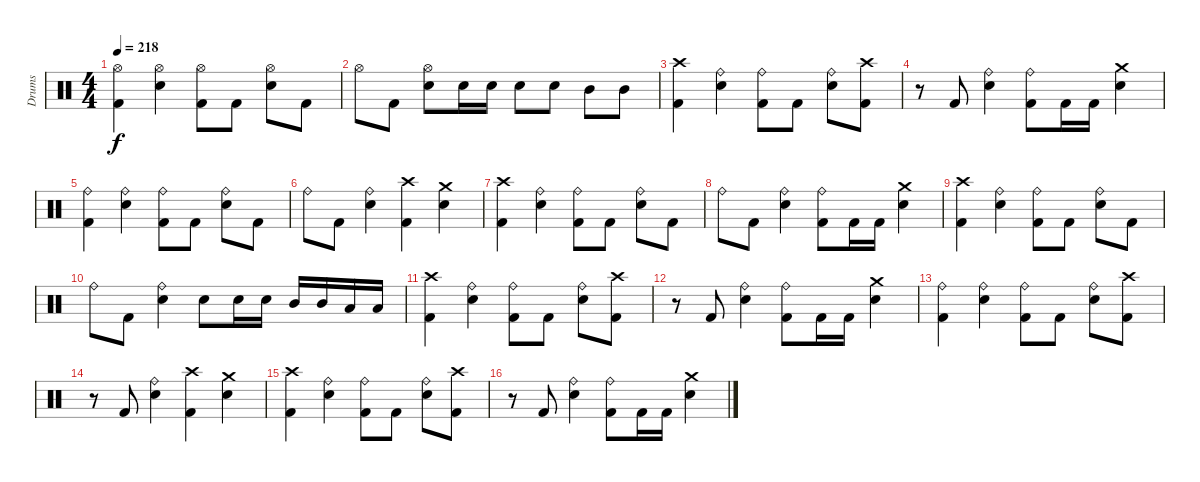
\track ("Drums" "Drums") {instrument percussion}
\staff {score}
\articulation defaults
\ts (4 4)
\tempo 218
\clef neutral
\ks c
("Hi-Hat (open)" "Kick (hit) 2").4{dy f} ("Hi-Hat (open)" "Snare (hit) 2").4 ("Hi-Hat (open)" "Kick (hit) 2").8 "Kick (hit) 2".8 ("Hi-Hat (open)" "Snare (hit) 2").8 "Kick (hit) 2".8 |
"Hi-Hat (open)".8 "Kick (hit) 2".8 ("Hi-Hat (open)" "Snare (hit) 2").8 "Snare (hit) 2".16 "Snare (hit) 2".16 "Snare (hit) 2".8 "Snare (hit) 2".8 "Mid Tom (hit)".8 "Mid Tom (hit)".8 |
("Crash high (hit)" "Kick (hit) 2").4 ("Ride (bell)" "Snare (hit) 2").4 ("Ride (bell)" "Kick (hit) 2").8 "Kick (hit) 2".8 ("Ride (bell)" "Snare (hit) 2").8 ("Crash high (hit)" "Kick (hit) 2").8 |
r.8 "Kick (hit) 2".8 ("Ride (bell)" "Snare (hit) 2").4 ("Ride (bell)" "Kick (hit) 2").8 "Kick (hit) 2".16 "Kick (hit) 2".16 ("Crash medium (hit)" "Snare (hit) 2").4 |
("Ride (bell)" "Kick (hit) 2").4 ("Ride (bell)" "Snare (hit) 2").4 ("Ride (bell)" "Kick (hit) 2").8 "Kick (hit) 2".8 ("Ride (bell)" "Snare (hit) 2").8 "Kick (hit) 2".8 |
"Ride (bell)".8 "Kick (hit) 2".8 ("Ride (bell)" "Snare (hit) 2").4 ("Crash high (hit)" "Kick (hit) 2").4 ("Crash medium (hit)" "Snare (hit) 2").4 |
("Crash high (hit)" "Kick (hit) 2").4 ("Ride (bell)" "Snare (hit) 2").4 ("Ride (bell)" "Kick (hit) 2").8 "Kick (hit) 2".8 ("Ride (bell)" "Snare (hit) 2").8 "Kick (hit) 2".8 |
"Ride (bell)".8 "Kick (hit) 2".8 ("Ride (bell)" "Snare (hit) 2").4 ("Ride (bell)" "Kick (hit) 2").8 "Kick (hit) 2".16 "Kick (hit) 2".16 ("Crash medium (hit)" "Snare (hit) 2").4 |
("Crash high (hit)" "Kick (hit) 2").4 ("Ride (bell)" "Snare (hit) 2").4 ("Ride (bell)" "Kick (hit) 2").8 "Kick (hit) 2".8 ("Ride (bell)" "Snare (hit) 2").8 "Kick (hit) 2".8 |
"Ride (bell)".8 "Kick (hit) 2".8 ("Ride (bell)" "Snare (hit) 2").4 "Snare (hit) 2".8 "Snare (hit) 2".16 "Snare (hit) 2".16 "Mid Tom (hit)".16 "Mid Tom (hit)".16 "Low Tom (hit)".16 "Low Tom (hit)".16 |
("Crash high (hit)" "Kick (hit) 2").4 ("Ride (bell)" "Snare (hit) 2").4 ("Ride (bell)" "Kick (hit) 2").8 "Kick (hit) 2".8 ("Ride (bell)" "Snare (hit) 2").8 ("Crash high (hit)" "Kick (hit) 2").8 |
r.8 "Kick (hit) 2".8 ("Ride (bell)" "Snare (hit) 2").4 ("Ride (bell)" "Kick (hit) 2").8 "Kick (hit) 2".16 "Kick (hit) 2".16 ("Crash medium (hit)" "Snare (hit) 2").4 |
("Ride (bell)" "Kick (hit) 2").4 ("Ride (bell)" "Snare (hit) 2").4 ("Ride (bell)" "Kick (hit) 2").8 "Kick (hit) 2".8 ("Ride (bell)" "Snare (hit) 2").8 ("Crash high (hit)" "Kick (hit) 2").8 |
r.8 "Kick (hit) 2".8 ("Ride (bell)" "Snare (hit) 2").4 ("Crash high (hit)" "Kick (hit) 2").4 ("Crash medium (hit)" "Snare (hit) 2").4 |
("Crash high (hit)" "Kick (hit) 2").4 ("Ride (bell)" "Snare (hit) 2").4 ("Ride (bell)" "Kick (hit) 2").8 "Kick (hit) 2".8 ("Ride (bell)" "Snare (hit) 2").8 ("Crash high (hit)" "Kick (hit) 2").8 |
r.8 "Kick (hit) 2".8 ("Ride (bell)" "Snare (hit) 2").4 ("Ride (bell)" "Kick (hit) 2").8 "Kick (hit) 2".16 "Kick (hit) 2".16 ("Crash medium (hit)" "Snare (hit) 2").4
